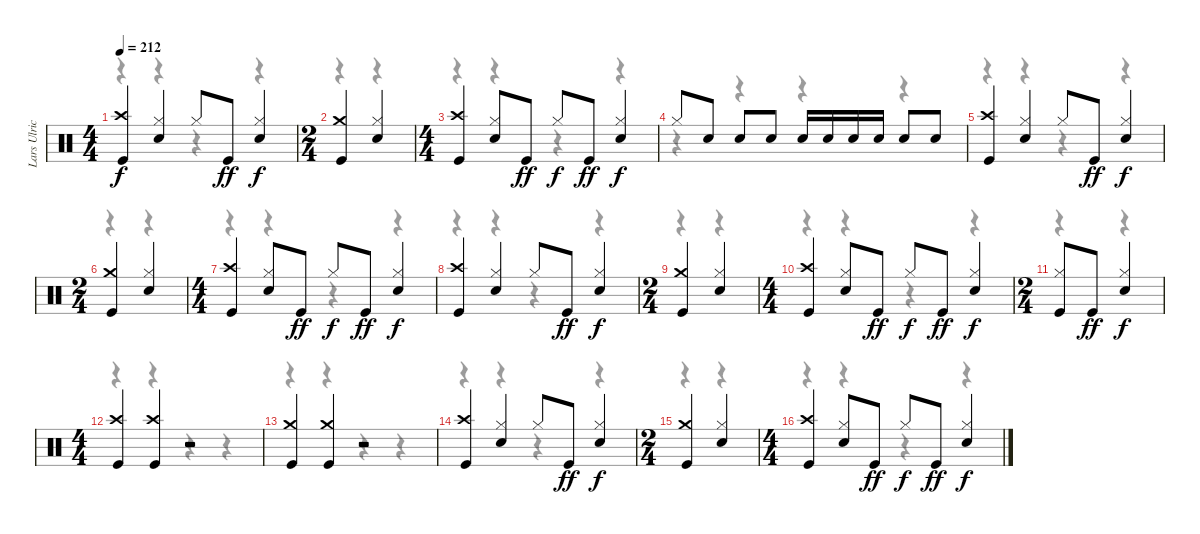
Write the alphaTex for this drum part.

\track ("Lars Ulrich" "Lars Ulric") {instrument percussion}
\staff {score}
\articulation defaults
\voice
\ts (4 4)
\tempo 212
\clef neutral
\ks c
("Crash high (hit)" "Kick (hit)").4{dy f} ("Hi-Hat (closed)" "Snare (hit) 2").4 "Hi-Hat (closed)".8 "Kick (hit)".8{dy ff} ("Hi-Hat (closed)" "Snare (hit) 2").4{dy f} |
\ts (2 4)
("Crash medium (hit)" "Kick (hit)").4 ("Hi-Hat (closed)" "Snare (hit) 2").4 |
\ts (4 4)
("Crash high (hit)" "Kick (hit)").4 ("Hi-Hat (closed)" "Snare (hit) 2").8 "Kick (hit)".8{dy ff} "Hi-Hat (closed)".8{dy f} "Kick (hit)".8{dy ff} ("Hi-Hat (closed)" "Snare (hit) 2").4{dy f} |
"Hi-Hat (closed)".8 "Snare (hit) 2".8 "Snare (hit) 2".8 "Snare (hit) 2".8 "Snare (hit) 2".16 "Snare (hit) 2".16 "Snare (hit) 2".16 "Snare (hit) 2".16 "Snare (hit) 2".8 "Snare (hit) 2".8 |
("Crash high (hit)" "Kick (hit)").4 ("Hi-Hat (closed)" "Snare (hit) 2").4 "Hi-Hat (closed)".8 "Kick (hit)".8{dy ff} ("Hi-Hat (closed)" "Snare (hit) 2").4{dy f} |
\ts (2 4)
("Crash medium (hit)" "Kick (hit)").4 ("Hi-Hat (closed)" "Snare (hit) 2").4 |
\ts (4 4)
("Crash high (hit)" "Kick (hit)").4 ("Hi-Hat (closed)" "Snare (hit) 2").8 "Kick (hit)".8{dy ff} "Hi-Hat (closed)".8{dy f} "Kick (hit)".8{dy ff} ("Hi-Hat (closed)" "Snare (hit) 2").4{dy f} |
("Crash high (hit)" "Kick (hit)").4 ("Hi-Hat (closed)" "Snare (hit) 2").4 "Hi-Hat (closed)".8 "Kick (hit)".8{dy ff} ("Hi-Hat (closed)" "Snare (hit) 2").4{dy f} |
\ts (2 4)
("Crash medium (hit)" "Kick (hit)").4 ("Hi-Hat (closed)" "Snare (hit) 2").4 |
\ts (4 4)
("Crash high (hit)" "Kick (hit)").4 ("Hi-Hat (closed)" "Snare (hit) 2").8 "Kick (hit)".8{dy ff} "Hi-Hat (closed)".8{dy f} "Kick (hit)".8{dy ff} ("Hi-Hat (closed)" "Snare (hit) 2").4{dy f} |
\ts (2 4)
("Hi-Hat (closed)" "Kick (hit)").8 "Kick (hit)".8{dy ff} ("Hi-Hat (closed)" "Snare (hit) 2").4{dy f} |
\ts (4 4)
("Crash high (hit)" "Kick (hit)").4 ("Crash high (hit)" "Kick (hit)").4 r.2 |
("Crash medium (hit)" "Kick (hit)").4 ("Crash medium (hit)" "Kick (hit)").4 r.2 |
("Crash high (hit)" "Kick (hit)").4 ("Hi-Hat (closed)" "Snare (hit) 2").4 "Hi-Hat (closed)".8 "Kick (hit)".8{dy ff} ("Hi-Hat (closed)" "Snare (hit) 2").4{dy f} |
\ts (2 4)
("Crash medium (hit)" "Kick (hit)").4 ("Hi-Hat (closed)" "Snare (hit) 2").4 |
\ts (4 4)
("Crash high (hit)" "Kick (hit)").4 ("Hi-Hat (closed)" "Snare (hit) 2").8 "Kick (hit)".8{dy ff} "Hi-Hat (closed)".8{dy f} "Kick (hit)".8{dy ff} ("Hi-Hat (closed)" "Snare (hit) 2").4{dy f}
\voice
\clef neutral
\ottava regular
\simile none
\ks c
r.4{dy f} r.4 r.4 r.4 |
r.4 r.4 |
r.4 r.4 r.4 r.4 |
r.4 r.4 r.4 r.4 |
r.4 r.4 r.4 r.4 |
r.4 r.4 |
r.4 r.4 r.4 r.4 |
r.4 r.4 r.4 r.4 |
r.4 r.4 |
r.4 r.4 r.4 r.4 |
r.4 r.4 |
r.4 r.4 r.4 r.4 |
r.4 r.4 r.4 r.4 |
r.4 r.4 r.4 r.4 |
r.4 r.4 |
r.4 r.4 r.4 r.4
